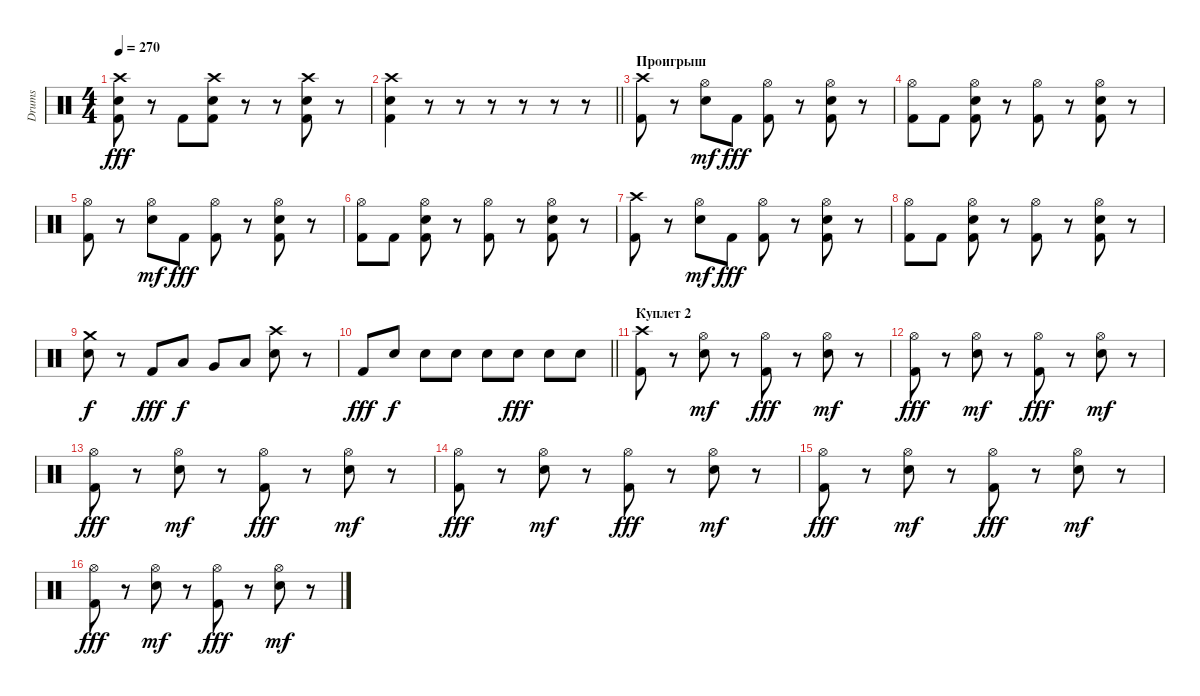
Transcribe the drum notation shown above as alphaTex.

\track ("Drums" "Drums") {instrument percussion}
\staff {score}
\articulation defaults
\ts (4 4)
\tempo 270
\clef neutral
\ks c
("Crash high (hit)" "Electric Snare (hit)" "Kick (hit) 2").8{dy fff} r.8 "Kick (hit) 2".8 ("Crash high (hit)" "Electric Snare (hit)" "Kick (hit) 2").8 r.8 r.8 ("Crash high (hit)" "Electric Snare (hit)" "Kick (hit) 2").8 r.8 |
\barLineRight lightlight
("Crash high (hit)" "Electric Snare (hit)" "Kick (hit) 2").4 r.8 r.8 r.8 r.8 r.8 r.8 |
\section ("" "Проигрыш")
("Crash high (hit)" "Kick (hit) 2").8 r.8 ("Hi-Hat (open)" "Electric Snare (hit)").8{dy mf} "Kick (hit) 2".8{dy fff} ("Hi-Hat (open)" "Kick (hit) 2").8 r.8 ("Hi-Hat (open)" "Electric Snare (hit)" "Kick (hit) 2").8 r.8 |
("Hi-Hat (open)" "Kick (hit) 2").8 "Kick (hit) 2".8 ("Hi-Hat (open)" "Electric Snare (hit)" "Kick (hit) 2").8 r.8 ("Hi-Hat (open)" "Kick (hit) 2").8 r.8 ("Hi-Hat (open)" "Electric Snare (hit)" "Kick (hit) 2").8 r.8 |
("Hi-Hat (open)" "Kick (hit) 2").8 r.8 ("Hi-Hat (open)" "Electric Snare (hit)").8{dy mf} "Kick (hit) 2".8{dy fff} ("Hi-Hat (open)" "Kick (hit) 2").8 r.8 ("Hi-Hat (open)" "Electric Snare (hit)" "Kick (hit) 2").8 r.8 |
("Hi-Hat (open)" "Kick (hit) 2").8 "Kick (hit) 2".8 ("Hi-Hat (open)" "Electric Snare (hit)" "Kick (hit) 2").8 r.8 ("Hi-Hat (open)" "Kick (hit) 2").8 r.8 ("Hi-Hat (open)" "Electric Snare (hit)" "Kick (hit) 2").8 r.8 |
("Crash high (hit)" "Kick (hit) 2").8 r.8 ("Hi-Hat (open)" "Electric Snare (hit)").8{dy mf} "Kick (hit) 2".8{dy fff} ("Hi-Hat (open)" "Kick (hit) 2").8 r.8 ("Hi-Hat (open)" "Electric Snare (hit)" "Kick (hit) 2").8 r.8 |
("Hi-Hat (open)" "Kick (hit) 2").8 "Kick (hit) 2".8 ("Hi-Hat (open)" "Electric Snare (hit)" "Kick (hit) 2").8 r.8 ("Hi-Hat (open)" "Kick (hit) 2").8 r.8 ("Hi-Hat (open)" "Electric Snare (hit)" "Kick (hit) 2").8 r.8 |
("Crash medium (hit)" "Electric Snare (hit)").8{dy f} r.8 "Kick (hit) 2".8{dy fff} "Low Tom (hit)".8{dy f} "Very Low Tom (hit)".8 "Low Floor Tom (hit)".8 ("Crash high (hit)" "Electric Snare (hit)").8 r.8 |
\barLineRight lightlight "Kick (hit) 2".8{dy fff} "Electric Snare (hit)".8{dy f} "Electric Snare (hit)".8 "Electric Snare (hit)".8 "Electric Snare (hit)".8 "Electric Snare (hit)".8{dy fff} "Electric Snare (hit)".8 "Electric Snare (hit)".8
|
\section ("" "Куплет 2")
("Crash high (hit)" "Kick (hit) 2").8 r.8 ("Hi-Hat (open)" "Electric Snare (hit)").8{dy mf} r.8 ("Hi-Hat (open)" "Kick (hit) 2").8{dy fff} r.8 ("Hi-Hat (open)" "Electric Snare (hit)").8{dy mf} r.8 |
("Hi-Hat (open)" "Kick (hit) 2").8{dy fff} r.8 ("Hi-Hat (open)" "Electric Snare (hit)").8{dy mf} r.8 ("Hi-Hat (open)" "Kick (hit) 2").8{dy fff} r.8 ("Hi-Hat (open)" "Electric Snare (hit)").8{dy mf} r.8 |
("Hi-Hat (open)" "Kick (hit) 2").8{dy fff} r.8 ("Hi-Hat (open)" "Electric Snare (hit)").8{dy mf} r.8 ("Hi-Hat (open)" "Kick (hit) 2").8{dy fff} r.8 ("Hi-Hat (open)" "Electric Snare (hit)").8{dy mf} r.8 |
("Hi-Hat (open)" "Kick (hit) 2").8{dy fff} r.8 ("Hi-Hat (open)" "Electric Snare (hit)").8{dy mf} r.8 ("Hi-Hat (open)" "Kick (hit) 2").8{dy fff} r.8 ("Hi-Hat (open)" "Electric Snare (hit)").8{dy mf} r.8 |
("Hi-Hat (open)" "Kick (hit) 2").8{dy fff} r.8 ("Hi-Hat (open)" "Electric Snare (hit)").8{dy mf} r.8 ("Hi-Hat (open)" "Kick (hit) 2").8{dy fff} r.8 ("Hi-Hat (open)" "Electric Snare (hit)").8{dy mf} r.8 |
("Hi-Hat (open)" "Kick (hit) 2").8{dy fff} r.8 ("Hi-Hat (open)" "Electric Snare (hit)").8{dy mf} r.8 ("Hi-Hat (open)" "Kick (hit) 2").8{dy fff} r.8 ("Hi-Hat (open)" "Electric Snare (hit)").8{dy mf} r.8
